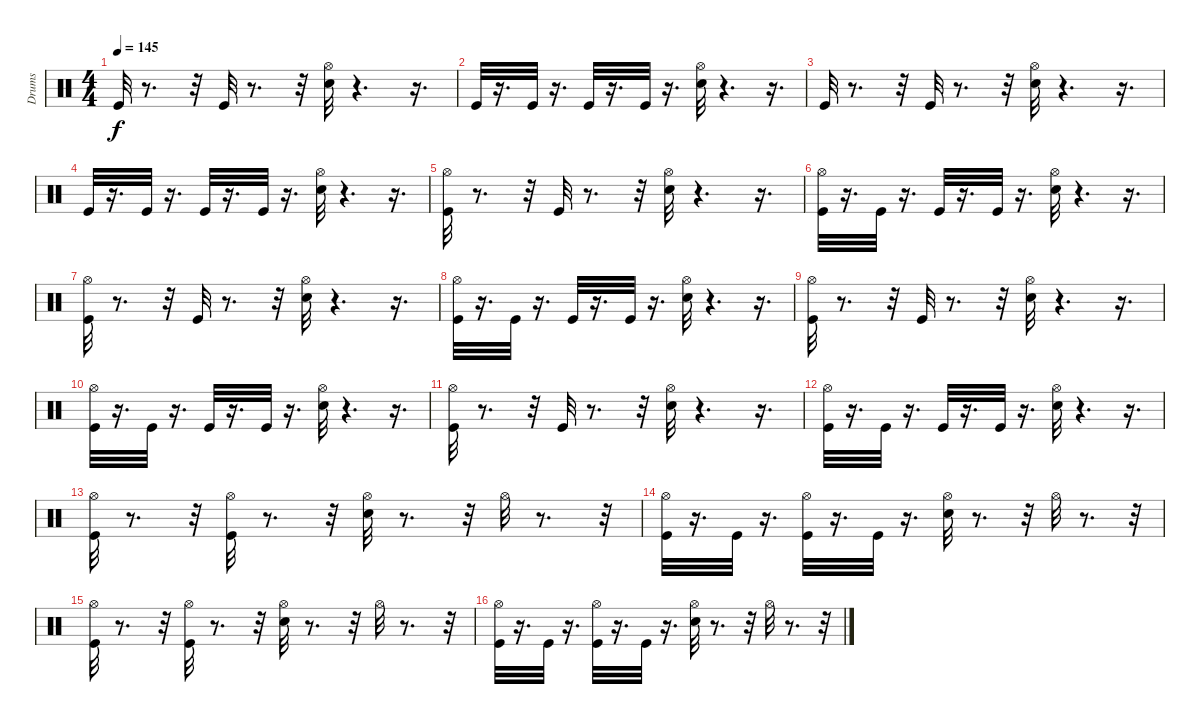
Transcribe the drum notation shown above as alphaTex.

\track ("Drums" "Drums") {instrument percussion}
\staff {score}
\articulation defaults
\ts (4 4)
\tempo 145
\clef neutral
\ks c "Kick (hit)".32{dy f}
r.8{d} r.32 "Kick (hit)".32 r.8{d} r.32 ("Snare (hit) 2" "Hi-Hat (open)").32 r.4{d} r.16{d} |
"Kick (hit)".32 r.16{d} "Kick (hit)".32 r.16{d} "Kick (hit)".32 r.16{d} "Kick (hit)".32 r.16{d} ("Snare (hit) 2" "Hi-Hat (open)").32 r.4{d} r.16{d} |
"Kick (hit)".32 r.8{d} r.32 "Kick (hit)".32 r.8{d} r.32 ("Snare (hit) 2" "Hi-Hat (open)").32 r.4{d} r.16{d} |
"Kick (hit)".32 r.16{d} "Kick (hit)".32 r.16{d} "Kick (hit)".32 r.16{d} "Kick (hit)".32 r.16{d} ("Snare (hit) 2" "Hi-Hat (open)").32 r.4{d} r.16{d} |
("Kick (hit)" "Hi-Hat (open)").32 r.8{d} r.32 "Kick (hit)".32 r.8{d} r.32 ("Snare (hit) 2" "Hi-Hat (open)").32 r.4{d} r.16{d} |
("Kick (hit)" "Hi-Hat (open)").32 r.16{d} "Kick (hit)".32 r.16{d} "Kick (hit)".32 r.16{d} "Kick (hit)".32 r.16{d} ("Snare (hit) 2" "Hi-Hat (open)").32 r.4{d} r.16{d} |
("Hi-Hat (open)" "Kick (hit)").32 r.8{d} r.32 "Kick (hit)".32 r.8{d} r.32 ("Snare (hit) 2" "Hi-Hat (open)").32 r.4{d} r.16{d} |
("Kick (hit)" "Hi-Hat (open)").32 r.16{d} "Kick (hit)".32 r.16{d} "Kick (hit)".32 r.16{d} "Kick (hit)".32 r.16{d} ("Snare (hit) 2" "Hi-Hat (open)").32 r.4{d} r.16{d} |
("Hi-Hat (open)" "Kick (hit)").32 r.8{d} r.32 "Kick (hit)".32 r.8{d} r.32 ("Snare (hit) 2" "Hi-Hat (open)").32 r.4{d} r.16{d} |
("Kick (hit)" "Hi-Hat (open)").32 r.16{d} "Kick (hit)".32 r.16{d} "Kick (hit)".32 r.16{d} "Kick (hit)".32 r.16{d} ("Snare (hit) 2" "Hi-Hat (open)").32 r.4{d} r.16{d} |
("Hi-Hat (open)" "Kick (hit)").32 r.8{d} r.32 "Kick (hit)".32 r.8{d} r.32 ("Snare (hit) 2" "Hi-Hat (open)").32 r.4{d} r.16{d} |
("Kick (hit)" "Hi-Hat (open)").32 r.16{d} "Kick (hit)".32 r.16{d} "Kick (hit)".32 r.16{d} "Kick (hit)".32 r.16{d} ("Snare (hit) 2" "Hi-Hat (open)").32 r.4{d} r.16{d} |
("Hi-Hat (open)" "Kick (hit)").32 r.8{d} r.32 ("Hi-Hat (open)" "Kick (hit)").32 r.8{d} r.32 ("Snare (hit) 2" "Hi-Hat (open)").32 r.8{d} r.32 "Hi-Hat (open)".32 r.8{d} r.32 |
("Kick (hit)" "Hi-Hat (open)").32 r.16{d} "Kick (hit)".32 r.16{d} ("Kick (hit)" "Hi-Hat (open)").32 r.16{d} "Kick (hit)".32 r.16{d} ("Snare (hit) 2" "Hi-Hat (open)").32 r.8{d} r.32 "Hi-Hat (open)".32 r.8{d} r.32 |
("Kick (hit)" "Hi-Hat (open)").32 r.8{d} r.32 ("Hi-Hat (open)" "Kick (hit)").32 r.8{d} r.32 ("Snare (hit) 2" "Hi-Hat (open)").32 r.8{d} r.32 "Hi-Hat (open)".32 r.8{d} r.32 |
("Kick (hit)" "Hi-Hat (open)").32 r.16{d} "Kick (hit)".32 r.16{d} ("Kick (hit)" "Hi-Hat (open)").32 r.16{d} "Kick (hit)".32 r.16{d} ("Snare (hit) 2" "Hi-Hat (open)").32 r.8{d} r.32 "Hi-Hat (open)".32 r.8{d} r.32
